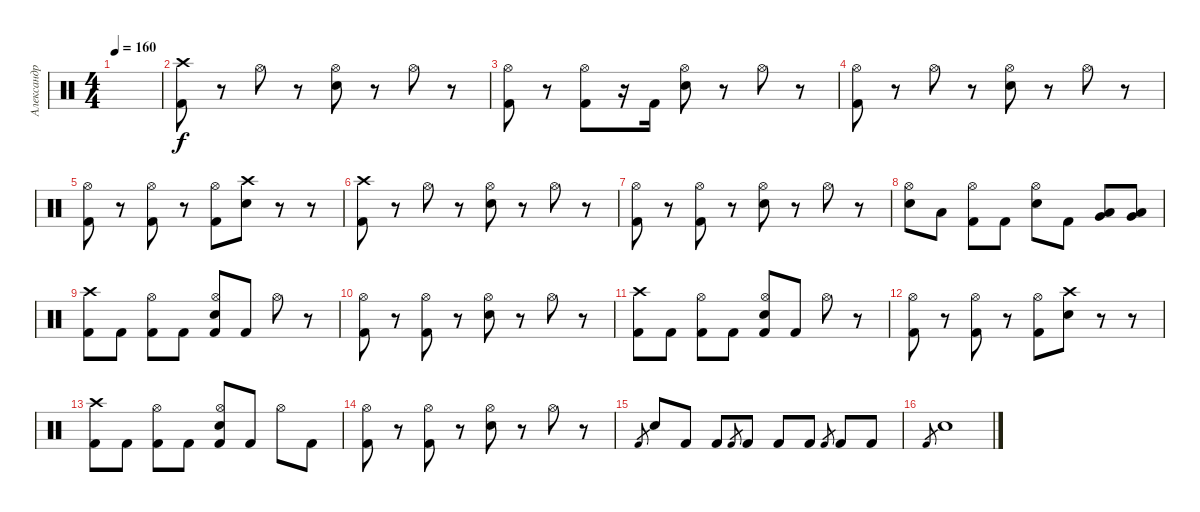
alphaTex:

\track ("Александр Карпухин" "Александр ") {instrument percussion}
\staff {score}
\articulation defaults
\ts (4 4)
\tempo 160
\clef neutral
\ks c
|
("Crash high (hit)" "Kick (hit) 2").8 r.8 "Hi-Hat (open)".8 r.8 ("Hi-Hat (open)" "Electric Snare (hit)").8 r.8 "Hi-Hat (open)".8 r.8 |
("Hi-Hat (open)" "Kick (hit) 2").8 r.8 ("Hi-Hat (open)" "Kick (hit) 2").8 r.16 "Kick (hit) 2".16 ("Hi-Hat (open)" "Electric Snare (hit)").8 r.8 "Hi-Hat (open)".8 r.8 |
("Hi-Hat (open)" "Kick (hit) 2").8 r.8 "Hi-Hat (open)".8 r.8 ("Hi-Hat (open)" "Electric Snare (hit)").8 r.8 "Hi-Hat (open)".8 r.8 |
("Hi-Hat (open)" "Kick (hit) 2").8 r.8 ("Hi-Hat (open)" "Kick (hit) 2").8 r.8 ("Hi-Hat (open)" "Kick (hit) 2").8 ("Crash high (hit)" "Electric Snare (hit)").8 r.8 r.8 |
("Crash high (hit)" "Kick (hit) 2").8 r.8 "Hi-Hat (open)".8 r.8 ("Hi-Hat (open)" "Electric Snare (hit)").8 r.8 "Hi-Hat (open)".8 r.8 |
("Hi-Hat (open)" "Kick (hit) 2").8 r.8 ("Hi-Hat (open)" "Kick (hit) 2").8 r.8 ("Hi-Hat (open)" "Electric Snare (hit)").8 r.8 "Hi-Hat (open)".8 r.8 |
("Hi-Hat (open)" "Electric Snare (hit)").8 "Low Floor Tom (hit)".8 ("Hi-Hat (open)" "Kick (hit) 2").8 "Kick (hit) 2".8 ("Hi-Hat (open)" "Electric Snare (hit)").8 "Kick (hit) 2".8 ("Very Low Tom (hit)" "Low Floor Tom (hit)").8 ("Very Low Tom (hit)" "Low Floor Tom (hit)").8 |
("Crash high (hit)" "Kick (hit) 2").8 "Kick (hit) 2".8 ("Hi-Hat (open)" "Kick (hit) 2").8 "Kick (hit) 2".8 ("Hi-Hat (open)" "Electric Snare (hit)" "Kick (hit) 2").8 "Kick (hit) 2".8 "Hi-Hat (open)".8 r.8 |
("Hi-Hat (open)" "Kick (hit) 2").8 r.8 ("Hi-Hat (open)" "Kick (hit) 2").8 r.8 ("Hi-Hat (open)" "Electric Snare (hit)").8 r.8 "Hi-Hat (open)".8 r.8 |
("Crash high (hit)" "Kick (hit) 2").8 "Kick (hit) 2".8 ("Hi-Hat (open)" "Kick (hit) 2").8 "Kick (hit) 2".8 ("Hi-Hat (open)" "Electric Snare (hit)" "Kick (hit) 2").8 "Kick (hit) 2".8 "Hi-Hat (open)".8 r.8 |
("Hi-Hat (open)" "Kick (hit) 2").8 r.8 ("Hi-Hat (open)" "Kick (hit) 2").8 r.8 ("Hi-Hat (open)" "Kick (hit) 2").8 ("Crash high (hit)" "Electric Snare (hit)").8 r.8 r.8 |
("Crash high (hit)" "Kick (hit) 2").8 "Kick (hit) 2".8 ("Hi-Hat (open)" "Kick (hit) 2").8 "Kick (hit) 2".8 ("Hi-Hat (open)" "Electric Snare (hit)" "Kick (hit) 2").8 "Kick (hit) 2".8 "Hi-Hat (open)".8 "Kick (hit) 2".8 |
("Hi-Hat (open)" "Kick (hit) 2").8 r.8 ("Hi-Hat (open)" "Kick (hit) 2").8 r.8 ("Hi-Hat (open)" "Electric Snare (hit)").8 r.8 "Hi-Hat (open)".8 r.8 |
"Kick (hit) 2".8{gr} "Electric Snare (hit)".8 "Kick (hit) 2".8 "Kick (hit) 2".8 "Kick (hit) 2".8{gr} "Kick (hit) 2".8 "Kick (hit) 2".8 "Kick (hit) 2".8 "Kick (hit) 2".8{gr} "Kick (hit) 2".8 "Kick (hit) 2".8 |
"Kick (hit) 2".8{gr} "Electric Snare (hit)".1
